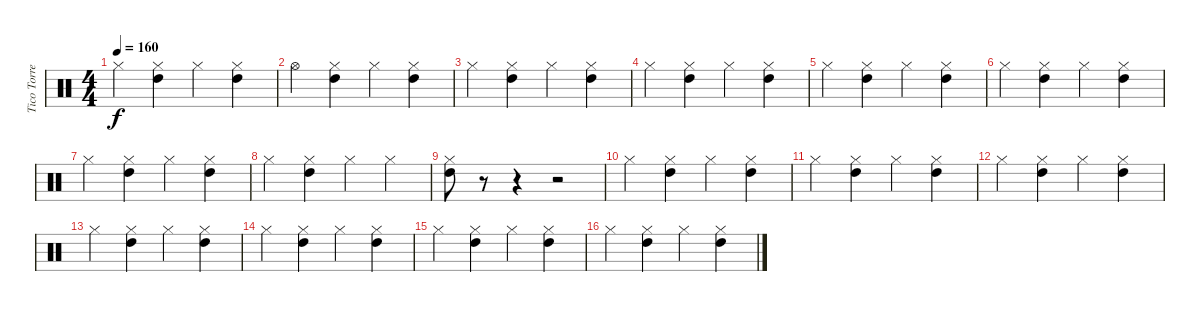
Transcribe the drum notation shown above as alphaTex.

\track ("Tico Torres" "Tico Torre") {instrument percussion}
\staff {score}
\articulation defaults
\ts (4 4)
\tempo 160
\clef neutral
\ks c "Hi-Hat (closed)".4{dy f}
("Hi-Hat (closed)" "High Tom (hit)").4 "Hi-Hat (closed)".4 ("Hi-Hat (closed)" "High Tom (hit)").4 |
"Hi-Hat (open)".4 ("Hi-Hat (closed)" "High Tom (hit)").4 "Hi-Hat (closed)".4 ("Hi-Hat (closed)" "High Tom (hit)").4 |
"Hi-Hat (closed)".4 ("Hi-Hat (closed)" "High Tom (hit)").4 "Hi-Hat (closed)".4 ("Hi-Hat (closed)" "High Tom (hit)").4 |
"Hi-Hat (closed)".4 ("Hi-Hat (closed)" "High Tom (hit)").4 "Hi-Hat (closed)".4 ("Hi-Hat (closed)" "High Tom (hit)").4 |
"Hi-Hat (closed)".4 ("Hi-Hat (closed)" "High Tom (hit)").4 "Hi-Hat (closed)".4 ("Hi-Hat (closed)" "High Tom (hit)").4 |
"Hi-Hat (closed)".4 ("Hi-Hat (closed)" "High Tom (hit)").4 "Hi-Hat (closed)".4 ("Hi-Hat (closed)" "High Tom (hit)").4 |
"Hi-Hat (closed)".4 ("Hi-Hat (closed)" "High Tom (hit)").4 "Hi-Hat (closed)".4 ("Hi-Hat (closed)" "High Tom (hit)").4 |
"Hi-Hat (closed)".4 ("Hi-Hat (closed)" "High Tom (hit)").4 "Hi-Hat (closed)".4 "Hi-Hat (closed)".4 |
("Hi-Hat (closed)" "High Tom (hit)").8 r.8 r.4 r.2 |
"Hi-Hat (closed)".4 ("Hi-Hat (closed)" "High Tom (hit)").4 "Hi-Hat (closed)".4 ("Hi-Hat (closed)" "High Tom (hit)").4 |
"Hi-Hat (closed)".4 ("Hi-Hat (closed)" "High Tom (hit)").4 "Hi-Hat (closed)".4 ("Hi-Hat (closed)" "High Tom (hit)").4 |
"Hi-Hat (closed)".4 ("Hi-Hat (closed)" "High Tom (hit)").4 "Hi-Hat (closed)".4 ("Hi-Hat (closed)" "High Tom (hit)").4 |
"Hi-Hat (closed)".4 ("Hi-Hat (closed)" "High Tom (hit)").4 "Hi-Hat (closed)".4 ("Hi-Hat (closed)" "High Tom (hit)").4 |
"Hi-Hat (closed)".4 ("Hi-Hat (closed)" "High Tom (hit)").4 "Hi-Hat (closed)".4 ("Hi-Hat (closed)" "High Tom (hit)").4 |
"Hi-Hat (closed)".4 ("Hi-Hat (closed)" "High Tom (hit)").4 "Hi-Hat (closed)".4 ("Hi-Hat (closed)" "High Tom (hit)").4 |
"Hi-Hat (closed)".4 ("Hi-Hat (closed)" "High Tom (hit)").4 "Hi-Hat (closed)".4 ("Hi-Hat (closed)" "High Tom (hit)").4
